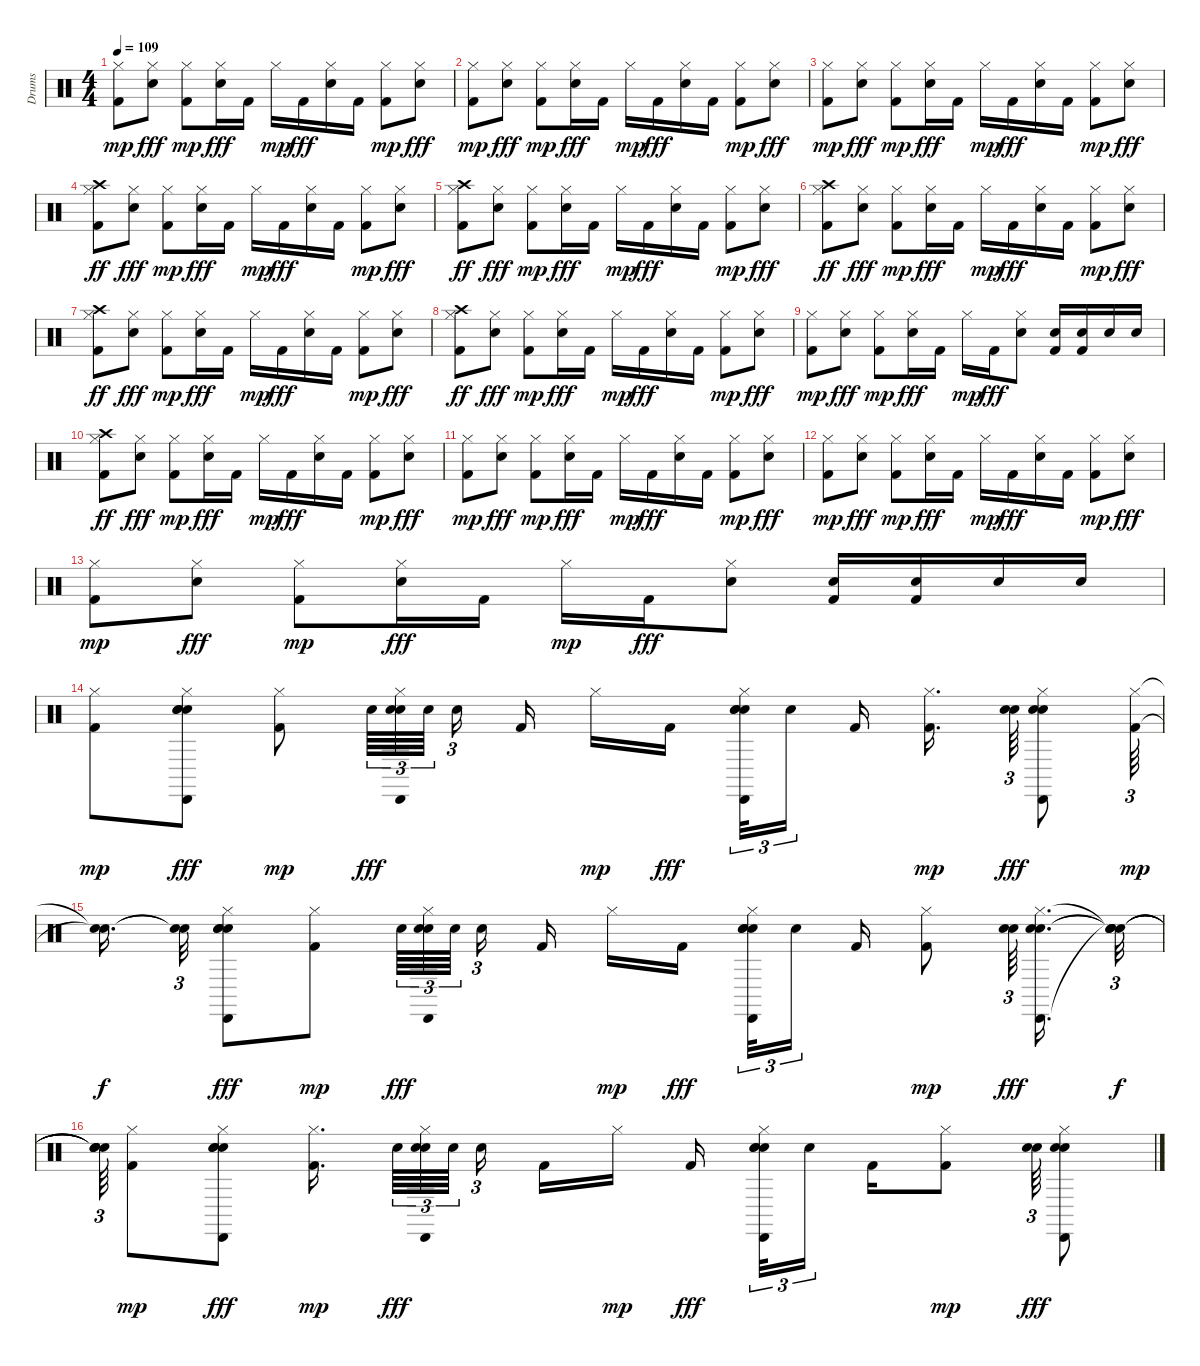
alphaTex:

\track ("Drums" "Drums") {instrument percussion}
\staff {score}
\articulation defaults
\ts (4 4)
\tempo 109
\clef neutral
\ks c
("Kick (hit) 2" "Hi-Hat (closed)").8{dy mp} ("Snare (hit) 2" "Hi-Hat (closed)").8{dy fff} ("Kick (hit) 2" "Hi-Hat (closed)").8{dy mp} ("Snare (hit) 2" "Hi-Hat (closed)").16{dy fff} "Kick (hit) 2".16 "Hi-Hat (closed)".16{dy mp} "Kick (hit) 2".16{dy fff} ("Snare (hit) 2" "Hi-Hat (closed)").16 "Kick (hit) 2".16 ("Kick (hit) 2" "Hi-Hat (closed)").8{dy mp} ("Snare (hit) 2" "Hi-Hat (closed)").8{dy fff} |
("Kick (hit) 2" "Hi-Hat (closed)").8{dy mp} ("Snare (hit) 2" "Hi-Hat (closed)").8{dy fff} ("Kick (hit) 2" "Hi-Hat (closed)").8{dy mp} ("Snare (hit) 2" "Hi-Hat (closed)").16{dy fff} "Kick (hit) 2".16 "Hi-Hat (closed)".16{dy mp} "Kick (hit) 2".16{dy fff} ("Snare (hit) 2" "Hi-Hat (closed)").16 "Kick (hit) 2".16 ("Kick (hit) 2" "Hi-Hat (closed)").8{dy mp} ("Snare (hit) 2" "Hi-Hat (closed)").8{dy fff} |
("Kick (hit) 2" "Hi-Hat (closed)").8{dy mp} ("Snare (hit) 2" "Hi-Hat (closed)").8{dy fff} ("Kick (hit) 2" "Hi-Hat (closed)").8{dy mp} ("Snare (hit) 2" "Hi-Hat (closed)").16{dy fff} "Kick (hit) 2".16 "Hi-Hat (closed)".16{dy mp} "Kick (hit) 2".16{dy fff} ("Snare (hit) 2" "Hi-Hat (closed)").16 "Kick (hit) 2".16 ("Kick (hit) 2" "Hi-Hat (closed)").8{dy mp} ("Snare (hit) 2" "Hi-Hat (closed)").8{dy fff} |
("Kick (hit) 2" "Hi-Hat (closed)" "Crash high (hit)").8{dy ff} ("Snare (hit) 2" "Hi-Hat (closed)").8{dy fff} ("Kick (hit) 2" "Hi-Hat (closed)").8{dy mp} ("Snare (hit) 2" "Hi-Hat (closed)").16{dy fff} "Kick (hit) 2".16 "Hi-Hat (closed)".16{dy mp} "Kick (hit) 2".16{dy fff} ("Snare (hit) 2" "Hi-Hat (closed)").16 "Kick (hit) 2".16 ("Kick (hit) 2" "Hi-Hat (closed)").8{dy mp} ("Snare (hit) 2" "Hi-Hat (closed)").8{dy fff} |
("Kick (hit) 2" "Hi-Hat (closed)" "Crash high (hit)").8{dy ff} ("Snare (hit) 2" "Hi-Hat (closed)").8{dy fff} ("Kick (hit) 2" "Hi-Hat (closed)").8{dy mp} ("Snare (hit) 2" "Hi-Hat (closed)").16{dy fff} "Kick (hit) 2".16 "Hi-Hat (closed)".16{dy mp} "Kick (hit) 2".16{dy fff} ("Snare (hit) 2" "Hi-Hat (closed)").16 "Kick (hit) 2".16 ("Kick (hit) 2" "Hi-Hat (closed)").8{dy mp} ("Snare (hit) 2" "Hi-Hat (closed)").8{dy fff} |
("Kick (hit) 2" "Hi-Hat (closed)" "Crash high (hit)").8{dy ff} ("Snare (hit) 2" "Hi-Hat (closed)").8{dy fff} ("Kick (hit) 2" "Hi-Hat (closed)").8{dy mp} ("Snare (hit) 2" "Hi-Hat (closed)").16{dy fff} "Kick (hit) 2".16 "Hi-Hat (closed)".16{dy mp} "Kick (hit) 2".16{dy fff} ("Snare (hit) 2" "Hi-Hat (closed)").16 "Kick (hit) 2".16 ("Kick (hit) 2" "Hi-Hat (closed)").8{dy mp} ("Snare (hit) 2" "Hi-Hat (closed)").8{dy fff} |
("Kick (hit) 2" "Hi-Hat (closed)" "Crash high (hit)").8{dy ff} ("Snare (hit) 2" "Hi-Hat (closed)").8{dy fff} ("Kick (hit) 2" "Hi-Hat (closed)").8{dy mp} ("Snare (hit) 2" "Hi-Hat (closed)").16{dy fff} "Kick (hit) 2".16 "Hi-Hat (closed)".16{dy mp} "Kick (hit) 2".16{dy fff} ("Snare (hit) 2" "Hi-Hat (closed)").16 "Kick (hit) 2".16 ("Kick (hit) 2" "Hi-Hat (closed)").8{dy mp} ("Snare (hit) 2" "Hi-Hat (closed)").8{dy fff} |
("Kick (hit) 2" "Hi-Hat (closed)" "Crash high (hit)").8{dy ff} ("Snare (hit) 2" "Hi-Hat (closed)").8{dy fff} ("Kick (hit) 2" "Hi-Hat (closed)").8{dy mp} ("Snare (hit) 2" "Hi-Hat (closed)").16{dy fff} "Kick (hit) 2".16 "Hi-Hat (closed)".16{dy mp} "Kick (hit) 2".16{dy fff} ("Snare (hit) 2" "Hi-Hat (closed)").16 "Kick (hit) 2".16 ("Kick (hit) 2" "Hi-Hat (closed)").8{dy mp} ("Snare (hit) 2" "Hi-Hat (closed)").8{dy fff} |
("Kick (hit) 2" "Hi-Hat (closed)").8{dy mp} ("Snare (hit) 2" "Hi-Hat (closed)").8{dy fff} ("Kick (hit) 2" "Hi-Hat (closed)").8{dy mp} ("Snare (hit) 2" "Hi-Hat (closed)").16{dy fff} "Kick (hit) 2".16 "Hi-Hat (closed)".16{dy mp} "Kick (hit) 2".16{dy fff} ("Snare (hit) 2" "Hi-Hat (closed)").8 ("Snare (hit) 2" "Kick (hit) 2").16 ("Snare (hit) 2" "Kick (hit) 2").16 "Snare (hit) 2".16 "Snare (hit) 2".16 |
("Kick (hit) 2" "Hi-Hat (closed)" "Crash high (hit)").8{dy ff} ("Snare (hit) 2" "Hi-Hat (closed)").8{dy fff} ("Kick (hit) 2" "Hi-Hat (closed)").8{dy mp} ("Snare (hit) 2" "Hi-Hat (closed)").16{dy fff} "Kick (hit) 2".16 "Hi-Hat (closed)".16{dy mp} "Kick (hit) 2".16{dy fff} ("Snare (hit) 2" "Hi-Hat (closed)").16 "Kick (hit) 2".16 ("Kick (hit) 2" "Hi-Hat (closed)").8{dy mp} ("Snare (hit) 2" "Hi-Hat (closed)").8{dy fff} |
("Kick (hit) 2" "Hi-Hat (closed)").8{dy mp} ("Snare (hit) 2" "Hi-Hat (closed)").8{dy fff} ("Kick (hit) 2" "Hi-Hat (closed)").8{dy mp} ("Snare (hit) 2" "Hi-Hat (closed)").16{dy fff} "Kick (hit) 2".16 "Hi-Hat (closed)".16{dy mp} "Kick (hit) 2".16{dy fff} ("Snare (hit) 2" "Hi-Hat (closed)").16 "Kick (hit) 2".16 ("Kick (hit) 2" "Hi-Hat (closed)").8{dy mp} ("Snare (hit) 2" "Hi-Hat (closed)").8{dy fff} |
("Kick (hit) 2" "Hi-Hat (closed)").8{dy mp} ("Snare (hit) 2" "Hi-Hat (closed)").8{dy fff} ("Kick (hit) 2" "Hi-Hat (closed)").8{dy mp} ("Snare (hit) 2" "Hi-Hat (closed)").16{dy fff} "Kick (hit) 2".16 "Hi-Hat (closed)".16{dy mp} "Kick (hit) 2".16{dy fff} ("Snare (hit) 2" "Hi-Hat (closed)").16 "Kick (hit) 2".16 ("Kick (hit) 2" "Hi-Hat (closed)").8{dy mp} ("Snare (hit) 2" "Hi-Hat (closed)").8{dy fff} |
("Kick (hit) 2" "Hi-Hat (closed)").8{dy mp} ("Snare (hit) 2" "Hi-Hat (closed)").8{dy fff} ("Kick (hit) 2" "Hi-Hat (closed)").8{dy mp} ("Snare (hit) 2" "Hi-Hat (closed)").16{dy fff} "Kick (hit) 2".16 "Hi-Hat (closed)".16{dy mp} "Kick (hit) 2".16{dy fff} ("Snare (hit) 2" "Hi-Hat (closed)").8 ("Snare (hit) 2" "Kick (hit) 2").16 ("Snare (hit) 2" "Kick (hit) 2").16 "Snare (hit) 2".16 "Snare (hit) 2".16 |
("Kick (hit) 2" "Hi-Hat (closed)").8{dy mp} ("Cabasa (hit)" "Snare (hit) 2" "Hi-Hat (closed)" "Hand Clap (hit)" "Hand Clap (hit)").8{dy fff} ("Kick (hit) 2" "Hi-Hat (closed)").8{dy mp} "Hand Clap (hit)".64{tu (3 2) dy fff} ("Cabasa (hit)" "Snare (hit) 2" "Hi-Hat (closed)" "Hand Clap (hit)").64{tu (3 2)} "Hand Clap (hit)".64{tu (3 2) beam splitsecondary} "Hand Clap (hit)".16{tu (3 2)} "Kick (hit) 2".16 "Hi-Hat (closed)".16{dy mp} "Kick (hit) 2".16{dy fff beam splitsecondary} ("Cabasa (hit)" "Snare (hit) 2" "Hi-Hat (closed)" "Hand Clap (hit)" "Hand Clap (hit)").32{tu (3 2)} "Hand Clap (hit)".16{tu (3 2) beam splitsecondary} "Kick (hit) 2".16 ("Kick (hit) 2" "Hi-Hat (closed)").16{d dy mp beam splitsecondary} ("Hand Clap (hit)" "Hand Clap (hit)").64{tu (3 2) dy fff} ("Cabasa (hit)" "Snare (hit) 2" "Hi-Hat (closed)" "Hand Clap (hit)").8 ("Kick (hit) 2" "Hi-Hat (closed)").64{tu (3 2) dy mp} |
("Snare (hit)"{t} "Snare (hit)"{t}).16{d dy f beam splitsecondary} ("Snare (hit)"{t} "Snare (hit)"{t}).32{tu (3 2)} ("Cabasa (hit)" "Snare (hit) 2" "Hi-Hat (closed)" "Hand Clap (hit)" "Hand Clap (hit)").8{dy fff} ("Kick (hit) 2" "Hi-Hat (closed)").8{dy mp} "Hand Clap (hit)".64{tu (3 2) dy fff} ("Cabasa (hit)" "Snare (hit) 2" "Hi-Hat (closed)" "Hand Clap (hit)").64{tu (3 2)} "Hand Clap (hit)".64{tu (3 2) beam splitsecondary} "Hand Clap (hit)".16{tu (3 2)} "Kick (hit) 2".16 "Hi-Hat (closed)".16{dy mp} "Kick (hit) 2".16{dy fff beam splitsecondary} ("Cabasa (hit)" "Snare (hit) 2" "Hi-Hat (closed)" "Hand Clap (hit)" "Hand Clap (hit)").32{tu (3 2)} "Hand Clap (hit)".16{tu (3 2) beam splitsecondary} "Kick (hit) 2".16 ("Kick (hit) 2" "Hi-Hat (closed)").8{dy mp} ("Hand Clap (hit)" "Hand Clap (hit)").64{tu (3 2) dy fff beam splitsecondary} ("Cabasa (hit)" "Snare (hit) 2" "Hi-Hat (closed)" "Hand Clap (hit)").16{d} ("Snare (hit)"{t} "Snare (hit)"{t} "Snare (hit)"{t} "Snare (hit)"{t}).32{tu (3 2) dy f} |
("Snare (hit)"{t} "Snare (hit)"{t} "Snare (hit)"{t} "Snare (hit)"{t}).64{tu (3 2)} ("Kick (hit) 2" "Hi-Hat (closed)").8{dy mp} ("Cabasa (hit)" "Snare (hit) 2" "Hi-Hat (closed)" "Hand Clap (hit)" "Hand Clap (hit)").8{dy fff} ("Kick (hit) 2" "Hi-Hat (closed)").16{d dy mp beam splitsecondary} "Hand Clap (hit)".64{tu (3 2) dy fff} ("Cabasa (hit)" "Snare (hit) 2" "Hi-Hat (closed)" "Hand Clap (hit)").64{tu (3 2)} "Hand Clap (hit)".64{tu (3 2) beam splitsecondary} "Hand Clap (hit)".16{tu (3 2) beam splitsecondary} "Kick (hit) 2".16 "Hi-Hat (closed)".16{dy mp} "Kick (hit) 2".16{dy fff beam splitsecondary} ("Cabasa (hit)" "Snare (hit) 2" "Hi-Hat (closed)" "Hand Clap (hit)" "Hand Clap (hit)").32{tu (3 2)} "Hand Clap (hit)".16{tu (3 2) beam splitsecondary} "Kick (hit) 2".16 ("Kick (hit) 2" "Hi-Hat (closed)").8{dy mp} ("Hand Clap (hit)" "Hand Clap (hit)").64{tu (3 2) dy fff} ("Cabasa (hit)" "Snare (hit) 2" "Hi-Hat (closed)" "Hand Clap (hit)").8
